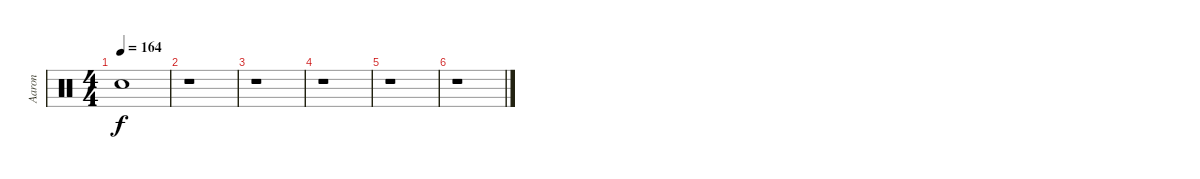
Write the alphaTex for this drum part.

\track ("Aaron" "Aaron") {instrument percussion}
\staff {score}
\articulation defaults
\ts (4 4)
\tempo 164
\clef neutral
\ks c "Snare (hit) 2".1{dy f}
|
r.1 |
r.1 |
r.1 |
r.1 |
r.1
